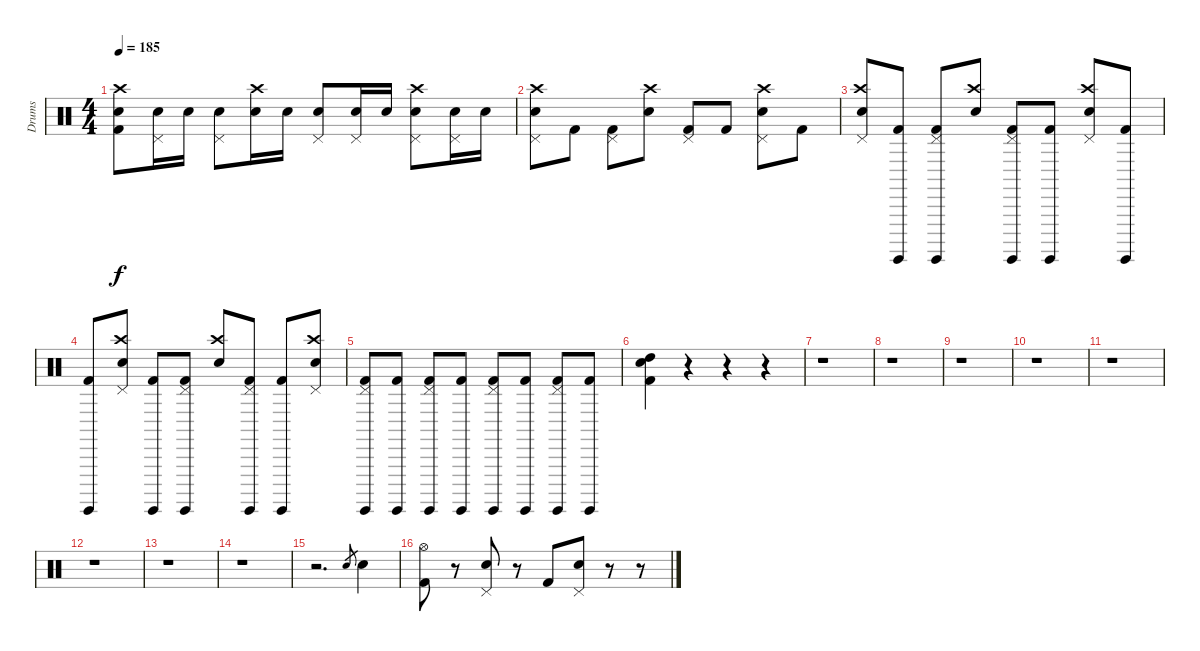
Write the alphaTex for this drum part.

\track ("Drums" "Drums") {instrument percussion}
\staff {score}
\articulation defaults
\ts (4 4)
\tempo 185
\clef neutral
\ks c
("Crash high (hit)" "Electric Snare (hit)" "Kick (hit) 2").8{dy f} ("Pedal Hi-Hat (hit)" "Electric Snare (hit)").16 "Electric Snare (hit)".16 ("Pedal Hi-Hat (hit)" "Electric Snare (hit)").8 ("Crash high (hit)" "Electric Snare (hit)").16 "Electric Snare (hit)".16 ("Pedal Hi-Hat (hit)" "Electric Snare (hit)").8 ("Pedal Hi-Hat (hit)" "Electric Snare (hit)").16 "Electric Snare (hit)".16 ("Crash high (hit)" "Pedal Hi-Hat (hit)" "Electric Snare (hit)").8 ("Pedal Hi-Hat (hit)" "Electric Snare (hit)").16 "Electric Snare (hit)".16 |
("Crash high (hit)" "Pedal Hi-Hat (hit)" "Electric Snare (hit)").8 "Kick (hit) 2".8 ("Pedal Hi-Hat (hit)" "Kick (hit) 2").8 ("Crash high (hit)" "Electric Snare (hit)").8 ("Pedal Hi-Hat (hit)" "Kick (hit) 2").8 "Kick (hit) 2".8 ("Crash high (hit)" "Pedal Hi-Hat (hit)" "Electric Snare (hit)").8 "Kick (hit) 2".8 |
("Crash high (hit)" "Pedal Hi-Hat (hit)" "Electric Snare (hit)").8 ("Surdo (hit)" "Kick (hit) 2").8 ("Pedal Hi-Hat (hit)" "Surdo (hit)" "Kick (hit) 2").8 ("Crash high (hit)" "Electric Snare (hit)").8 ("Pedal Hi-Hat (hit)" "Surdo (hit)" "Kick (hit) 2").8 ("Surdo (hit)" "Kick (hit) 2").8 ("Crash high (hit)" "Pedal Hi-Hat (hit)" "Electric Snare (hit)").8 ("Surdo (hit)" "Kick (hit) 2").8 |
("Surdo (hit)" "Kick (hit) 2").8 ("Crash high (hit)" "Pedal Hi-Hat (hit)" "Electric Snare (hit)").8 ("Surdo (hit)" "Kick (hit) 2").8 ("Pedal Hi-Hat (hit)" "Surdo (hit)" "Kick (hit) 2").8 ("Crash high (hit)" "Electric Snare (hit)").8 ("Pedal Hi-Hat (hit)" "Surdo (hit)" "Kick (hit) 2").8 ("Surdo (hit)" "Kick (hit) 2").8 ("Crash high (hit)" "Pedal Hi-Hat (hit)" "Electric Snare (hit)").8 |
("Pedal Hi-Hat (hit)" "Surdo (hit)" "Kick (hit) 2").8 ("Surdo (hit)" "Kick (hit) 2").8 ("Pedal Hi-Hat (hit)" "Surdo (hit)" "Kick (hit) 2").8 ("Surdo (hit)" "Kick (hit) 2").8 ("Pedal Hi-Hat (hit)" "Surdo (hit)" "Kick (hit) 2").8 ("Surdo (hit)" "Kick (hit) 2").8 ("Pedal Hi-Hat (hit)" "Surdo (hit)" "Kick (hit) 2").8 ("Surdo (hit)" "Kick (hit) 2").8 |
("Electric Snare (hit)" "High Tom (hit)" "Kick (hit) 2").4 r.4 r.4 r.4 |
r.1 |
r.1 |
r.1 |
r.1 |
r.1 |
r.1 |
r.1 |
r.1 |
r.2{d} "Electric Snare (hit)".8{gr} "Electric Snare (hit)".4 |
("Hi-Hat (open)" "Kick (hit) 2").8 r.8 ("Pedal Hi-Hat (hit)" "Electric Snare (hit)").8 r.8 "Kick (hit) 2".8 ("Pedal Hi-Hat (hit)" "Electric Snare (hit)").8 r.8 r.8
